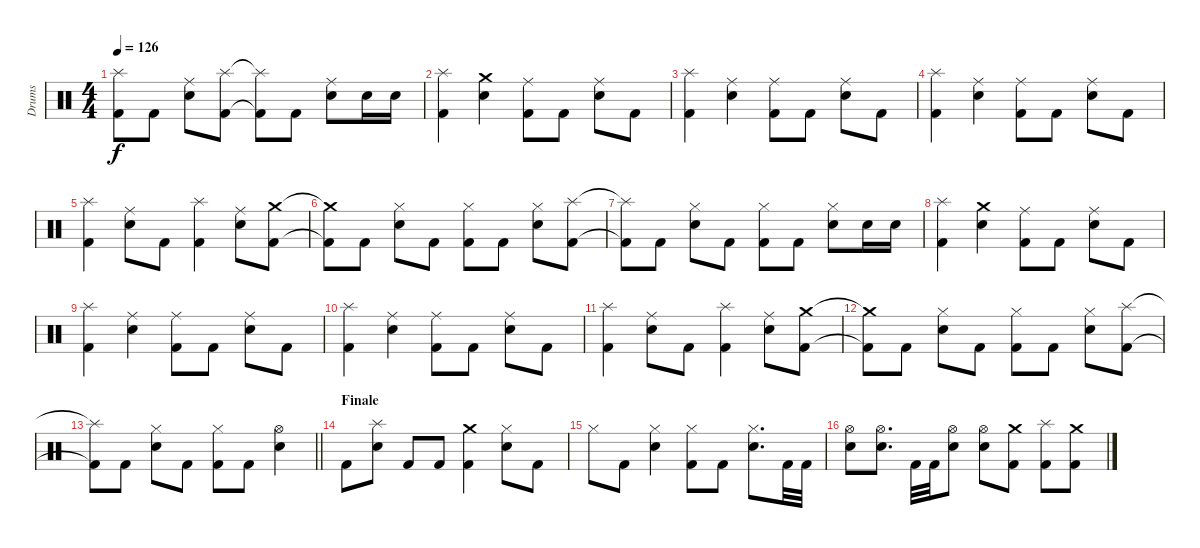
\track ("Drums" "Drums") {instrument percussion}
\staff {score}
\articulation defaults
\ts (4 4)
\tempo 126
\clef neutral
\ks c
("Splash (hit)"{t} "Kick (hit) 2"{t}).8{dy f} "Kick (hit) 2".8 ("Ride (middle)" "Snare (hit) 2").8 ("Splash (hit)" "Kick (hit) 2").8 ("Splash (hit)"{t} "Kick (hit) 2"{t}).8 "Kick (hit) 2".8 ("Ride (middle)" "Snare (hit) 2").8 "Snare (hit) 2".16 "Snare (hit) 2".16 |
("Splash (hit)" "Kick (hit) 2").4 ("Crash medium (hit)" "Snare (hit) 2").4 ("Ride (middle)" "Kick (hit) 2").8 "Kick (hit) 2".8 ("Ride (middle)" "Snare (hit) 2").8 "Kick (hit) 2".8 |
("Splash (hit)" "Kick (hit) 2").4 ("Ride (middle)" "Snare (hit) 2").4 ("Ride (middle)" "Kick (hit) 2").8 "Kick (hit) 2".8 ("Ride (middle)" "Snare (hit) 2").8 "Kick (hit) 2".8 |
("Splash (hit)" "Kick (hit) 2").4 ("Ride (middle)" "Snare (hit) 2").4 ("Ride (middle)" "Kick (hit) 2").8 "Kick (hit) 2".8 ("Ride (middle)" "Snare (hit) 2").8 "Kick (hit) 2".8 |
("Splash (hit)" "Kick (hit) 2").4 ("Ride (middle)" "Snare (hit) 2").8 "Kick (hit) 2".8 ("Splash (hit)" "Kick (hit) 2").4 ("Ride (middle)" "Snare (hit) 2").8 ("Crash medium (hit)" "Kick (hit) 2").8 |
("Crash medium (hit)"{t} "Kick (hit) 2"{t}).8 "Kick (hit) 2".8 ("Hi-Hat (closed)" "Snare (hit) 2").8 "Kick (hit) 2".8 ("Hi-Hat (closed)" "Kick (hit) 2").8 "Kick (hit) 2".8 ("Hi-Hat (closed)" "Snare (hit) 2").8 ("Splash (hit)" "Kick (hit) 2").8 |
("Splash (hit)"{t} "Kick (hit) 2"{t}).8 "Kick (hit) 2".8 ("Hi-Hat (closed)" "Snare (hit) 2").8 "Kick (hit) 2".8 ("Hi-Hat (closed)" "Kick (hit) 2").8 "Kick (hit) 2".8 ("Hi-Hat (closed)" "Snare (hit) 2").8 "Snare (hit) 2".16 "Snare (hit) 2".16 |
("Splash (hit)" "Kick (hit) 2").4 ("Crash medium (hit)" "Snare (hit) 2").4 ("Ride (middle)" "Kick (hit) 2").8 "Kick (hit) 2".8 ("Ride (middle)" "Snare (hit) 2").8 "Kick (hit) 2".8 |
("Splash (hit)" "Kick (hit) 2").4 ("Ride (middle)" "Snare (hit) 2").4 ("Ride (middle)" "Kick (hit) 2").8 "Kick (hit) 2".8 ("Ride (middle)" "Snare (hit) 2").8 "Kick (hit) 2".8 |
("Splash (hit)" "Kick (hit) 2").4 ("Ride (middle)" "Snare (hit) 2").4 ("Ride (middle)" "Kick (hit) 2").8 "Kick (hit) 2".8 ("Ride (middle)" "Snare (hit) 2").8 "Kick (hit) 2".8 |
("Splash (hit)" "Kick (hit) 2").4 ("Ride (middle)" "Snare (hit) 2").8 "Kick (hit) 2".8 ("Splash (hit)" "Kick (hit) 2").4 ("Ride (middle)" "Snare (hit) 2").8 ("Crash medium (hit)" "Kick (hit) 2").8 |
("Crash medium (hit)"{t} "Kick (hit) 2"{t}).8 "Kick (hit) 2".8 ("Hi-Hat (closed)" "Snare (hit) 2").8 "Kick (hit) 2".8 ("Hi-Hat (closed)" "Kick (hit) 2").8 "Kick (hit) 2".8 ("Hi-Hat (closed)" "Snare (hit) 2").8 ("Splash (hit)" "Kick (hit) 2").8 |
\barLineRight lightlight
("Splash (hit)"{t} "Kick (hit) 2"{t}).8 "Kick (hit) 2".8 ("Hi-Hat (closed)" "Snare (hit) 2").8 "Kick (hit) 2".8 ("Hi-Hat (closed)" "Kick (hit) 2").8 "Kick (hit) 2".8 ("Hi-Hat (open)" "Snare (hit) 2").4 |
\section ("" "Finale")
"Kick (hit) 2".8 ("Splash (hit)" "Snare (hit) 2").8 "Kick (hit) 2".8 "Kick (hit) 2".8 ("Crash medium (hit)" "Kick (hit) 2").4 ("Hi-Hat (closed)" "Snare (hit) 2").8 "Kick (hit) 2".8 |
"Hi-Hat (closed)".8 "Kick (hit) 2".8 ("Hi-Hat (closed)" "Snare (hit) 2").4 ("Hi-Hat (closed)" "Kick (hit) 2").8 "Kick (hit) 2".8 ("Hi-Hat (closed)" "Snare (hit) 2").8{d} "Kick (hit) 2".32 "Kick (hit) 2".32 |
("Hi-Hat (open)" "Snare (hit) 2").8 ("Hi-Hat (open)" "Snare (hit) 2").8{d} "Kick (hit) 2".32 "Kick (hit) 2".32 ("Hi-Hat (open)" "Snare (hit) 2").8 ("Hi-Hat (open)" "Snare (hit) 2").8 ("Crash medium (hit)" "Kick (hit) 2").8 ("Splash (hit)" "Kick (hit) 2").8 ("Crash medium (hit)" "Kick (hit) 2").8
